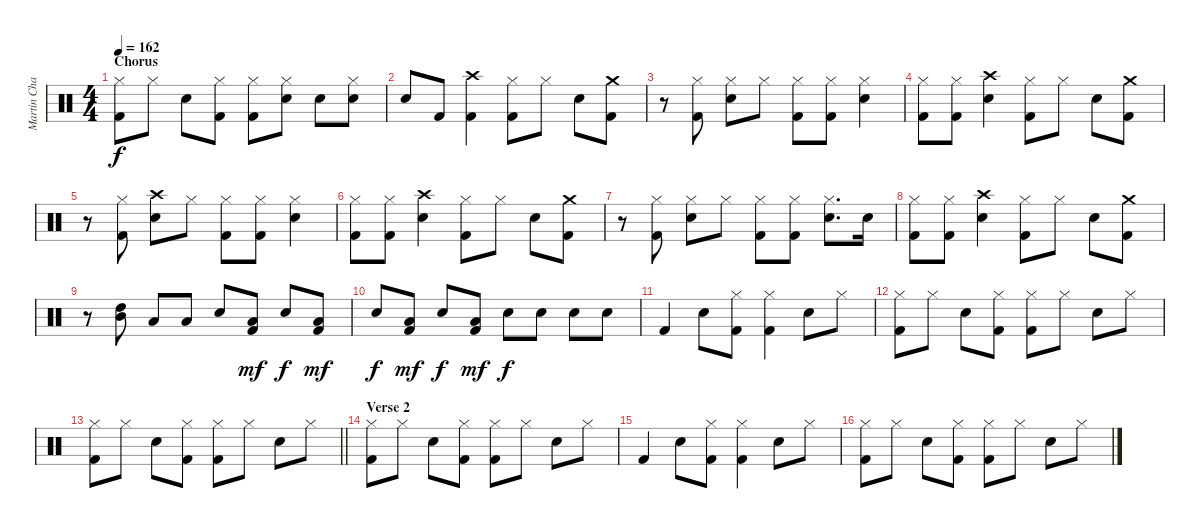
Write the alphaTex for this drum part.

\track ("Martin Chambers" "Martin Cha") {instrument percussion}
\staff {score}
\articulation defaults
\ts (4 4)
\section ("" "Chorus")
\tempo 162
\clef neutral
\ks c
("Hi-Hat (closed)" "Kick (hit) 2").8{dy f} "Hi-Hat (closed)".8 "Snare (hit) 2".8 ("Hi-Hat (closed)" "Kick (hit) 2").8 ("Hi-Hat (closed)" "Kick (hit) 2").8 ("Hi-Hat (closed)" "Snare (hit) 2").8 "Snare (hit) 2".8 ("Hi-Hat (closed)" "Snare (hit) 2").8 |
"Snare (hit) 2".8 "Kick (hit) 2".8 ("Crash high (hit)" "Kick (hit) 2").4 ("Hi-Hat (closed)" "Kick (hit) 2").8 "Hi-Hat (closed)".8 "Snare (hit) 2".8 ("Crash medium (hit)" "Kick (hit) 2").8 |
r.8 ("Hi-Hat (closed)" "Kick (hit) 2").8 ("Hi-Hat (closed)" "Snare (hit) 2").8 "Hi-Hat (closed)".8 ("Hi-Hat (closed)" "Kick (hit) 2").8 ("Hi-Hat (closed)" "Kick (hit) 2").8 ("Hi-Hat (closed)" "Snare (hit) 2").4 |
("Hi-Hat (closed)" "Kick (hit) 2").8 ("Hi-Hat (closed)" "Kick (hit) 2").8 ("Crash high (hit)" "Snare (hit) 2").4 ("Hi-Hat (closed)" "Kick (hit) 2").8 "Hi-Hat (closed)".8 "Snare (hit) 2".8 ("Crash medium (hit)" "Kick (hit) 2").8 |
r.8 ("Hi-Hat (closed)" "Kick (hit) 2").8 ("Crash high (hit)" "Snare (hit) 2").8 "Hi-Hat (closed)".8 ("Hi-Hat (closed)" "Kick (hit) 2").8 ("Hi-Hat (closed)" "Kick (hit) 2").8 ("Hi-Hat (closed)" "Snare (hit) 2").4 |
("Hi-Hat (closed)" "Kick (hit) 2").8 ("Hi-Hat (closed)" "Kick (hit) 2").8 ("Crash high (hit)" "Snare (hit) 2").4 ("Hi-Hat (closed)" "Kick (hit) 2").8 "Hi-Hat (closed)".8 "Snare (hit) 2".8 ("Crash medium (hit)" "Kick (hit) 2").8 |
r.8 ("Hi-Hat (closed)" "Kick (hit) 2").8 ("Hi-Hat (closed)" "Snare (hit) 2").8 "Hi-Hat (closed)".8 ("Hi-Hat (closed)" "Kick (hit) 2").8 ("Hi-Hat (closed)" "Kick (hit) 2").8 ("Hi-Hat (closed)" "Snare (hit) 2").8{d} "Snare (hit) 2".16 |
("Hi-Hat (closed)" "Kick (hit) 2").8 ("Hi-Hat (closed)" "Kick (hit) 2").8 ("Crash high (hit)" "Snare (hit) 2").4 ("Hi-Hat (closed)" "Kick (hit) 2").8 "Hi-Hat (closed)".8 "Snare (hit) 2".8 ("Crash medium (hit)" "Kick (hit) 2").8 |
r.8 ("Mid Tom (hit)" "High Tom (hit)").8 "Low Tom (hit)".8 "Low Tom (hit)".8 "Snare (hit) 2".8 ("Low Tom (hit)" "Kick (hit) 2").8{dy mf} "Snare (hit) 2".8{dy f} ("Low Tom (hit)" "Kick (hit) 2").8{dy mf} |
"Snare (hit) 2".8{dy f} ("Low Tom (hit)" "Kick (hit) 2").8{dy mf} "Snare (hit) 2".8{dy f} ("Low Tom (hit)" "Kick (hit) 2").8{dy mf} "Snare (hit) 2".8{dy f} "Snare (hit) 2".8 "Snare (hit) 2".8 "Snare (hit) 2".8 |
"Kick (hit) 2".4 "Snare (hit) 2".8 ("Hi-Hat (closed)" "Kick (hit) 2").8 ("Hi-Hat (closed)" "Kick (hit) 2").4 "Snare (hit) 2".8 "Hi-Hat (closed)".8 |
("Hi-Hat (closed)" "Kick (hit) 2").8 "Hi-Hat (closed)".8 "Snare (hit) 2".8 ("Hi-Hat (closed)" "Kick (hit) 2").8 ("Hi-Hat (closed)" "Kick (hit) 2").8 "Hi-Hat (closed)".8 "Snare (hit) 2".8 "Hi-Hat (closed)".8 |
\barLineRight lightlight
("Hi-Hat (closed)" "Kick (hit) 2").8 "Hi-Hat (closed)".8 "Snare (hit) 2".8 ("Hi-Hat (closed)" "Kick (hit) 2").8 ("Hi-Hat (closed)" "Kick (hit) 2").8 "Hi-Hat (closed)".8 "Snare (hit) 2".8 "Hi-Hat (closed)".8 |
\section ("" "Verse 2")
("Hi-Hat (closed)" "Kick (hit) 2").8 "Hi-Hat (closed)".8 "Snare (hit) 2".8 ("Hi-Hat (closed)" "Kick (hit) 2").8 ("Hi-Hat (closed)" "Kick (hit) 2").8 "Hi-Hat (closed)".8 "Snare (hit) 2".8 "Hi-Hat (closed)".8 |
"Kick (hit) 2".4 "Snare (hit) 2".8 ("Hi-Hat (closed)" "Kick (hit) 2").8 ("Hi-Hat (closed)" "Kick (hit) 2").4 "Snare (hit) 2".8 "Hi-Hat (closed)".8 |
("Hi-Hat (closed)" "Kick (hit) 2").8 "Hi-Hat (closed)".8 "Snare (hit) 2".8 ("Hi-Hat (closed)" "Kick (hit) 2").8 ("Hi-Hat (closed)" "Kick (hit) 2").8 "Hi-Hat (closed)".8 "Snare (hit) 2".8 "Hi-Hat (closed)".8
